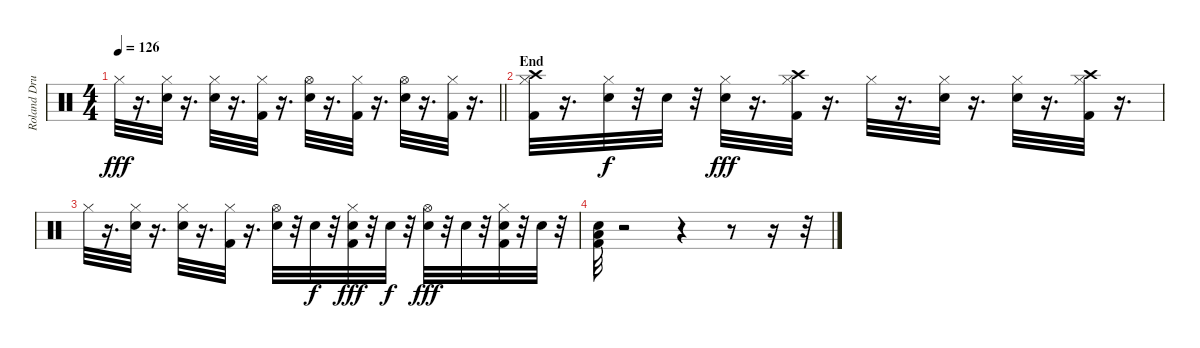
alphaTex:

\track ("Roland Drums" "Roland Dru") {instrument percussion}
\staff {score}
\articulation defaults
\ts (4 4)
\tempo 126
\clef neutral
\barLineRight lightlight
\ks c "Hi-Hat (closed)".32{dy fff}
r.16{d} ("Snare (hit) 2" "Hi-Hat (closed)").32 r.16{d} ("Snare (hit) 2" "Hi-Hat (closed)").32 r.16{d} ("Kick (hit) 2" "Hi-Hat (closed)").32 r.16{d} ("Snare (hit) 2" "Hi-Hat (open)").32 r.16{d} ("Kick (hit) 2" "Hi-Hat (closed)").32 r.16{d} ("Snare (hit) 2" "Hi-Hat (open)").32 r.16{d} ("Kick (hit) 2" "Hi-Hat (closed)").32 r.16{d} |
\section ("" "End")
("Kick (hit) 2" "Hi-Hat (closed)" "Crash high (hit)").32 r.16{d} ("Snare (hit) 2" "Hi-Hat (closed)").32{dy f} r.32 "Snare (hit) 2".32 r.32 ("Snare (hit) 2" "Hi-Hat (closed)").32{dy fff} r.16{d} ("Kick (hit) 2" "Hi-Hat (closed)" "Crash high (hit)").32 r.16{d} "Hi-Hat (closed)".32 r.16{d} ("Snare (hit) 2" "Hi-Hat (closed)").32 r.16{d} ("Snare (hit) 2" "Hi-Hat (closed)").32 r.16{d} ("Kick (hit) 2" "Hi-Hat (closed)" "Crash high (hit)").32 r.16{d} |
"Hi-Hat (closed)".32 r.16{d} ("Snare (hit) 2" "Hi-Hat (closed)").32 r.16{d} ("Snare (hit) 2" "Hi-Hat (closed)").32 r.16{d} ("Kick (hit) 2" "Hi-Hat (closed)").32 r.16{d} ("Snare (hit) 2" "Hi-Hat (open)").32 r.32 "Snare (hit) 2".32{dy f} r.32 ("Kick (hit) 2" "Snare (hit) 2" "Hi-Hat (closed)").32{dy fff} r.32 "Snare (hit) 2".32{dy f} r.32 ("Snare (hit) 2" "Hi-Hat (open)").32{dy fff} r.32 "Snare (hit) 2".32 r.32 ("Kick (hit) 2" "Snare (hit) 2" "Hi-Hat (closed)").32 r.32 "Snare (hit) 2".32 r.32 |
("Kick (hit) 2" "Snare (hit) 2" "Low Floor Tom (hit)").32 r.2 r.4 r.8 r.16 r.32
